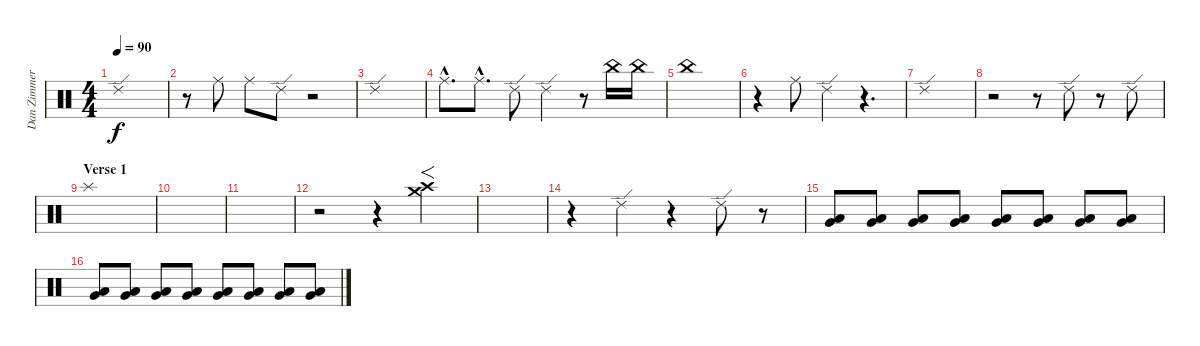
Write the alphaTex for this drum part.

\track ("Dan Zimmerman" "Dan Zimmer") {instrument percussion}
\staff {score}
\articulation defaults
\ts (4 4)
\tempo 90
\clef neutral
\ks c "Ride (edge) 2".1{dy f}
|
r.8 "Ride (middle)".8{volume 10} "Ride (middle)".8{volume 11} "Ride (edge) 2".8{volume 13} r.2 |
"Ride (edge) 2".1 |
"Ride (middle)"{hac}.8{d} "Ride (middle)"{hac}.8{d} "Ride (edge) 2".8 "Ride (edge) 2".4 r.8 "China (hit)".16{volume 8} "China (hit)".16 |
"China (hit)".1{volume 11} |
r.4 "Ride (middle)".8 "Ride (edge) 2".4{volume 13} r.4{d} |
"Ride (edge) 2".1 |
r.2 r.8 "Ride (edge) 2".8 r.8 "Ride (edge) 2".8 |
\section ("" "Verse 1")
"Splash (hit)".1 |
|
|
r.2 r.4 ("Crash high (hit)" "Crash medium (hit)").4{f volume 16} |
|
r.4 "Ride (edge) 2".4{volume 13} r.4 "Ride (edge) 2".8 r.8{volume 9} |
("Very Low Tom (hit)" "Low Tom (hit)").8{volume 11} ("Very Low Tom (hit)" "Low Tom (hit)").8 ("Very Low Tom (hit)" "Low Tom (hit)").8 ("Very Low Tom (hit)" "Low Tom (hit)").8 ("Very Low Tom (hit)" "Low Tom (hit)").8 ("Very Low Tom (hit)" "Low Tom (hit)").8 ("Very Low Tom (hit)" "Low Tom (hit)").8 ("Very Low Tom (hit)" "Low Tom (hit)").8 |
("Very Low Tom (hit)" "Low Tom (hit)").8{volume 13} ("Very Low Tom (hit)" "Low Tom (hit)").8 ("Very Low Tom (hit)" "Low Tom (hit)").8 ("Very Low Tom (hit)" "Low Tom (hit)").8 ("Very Low Tom (hit)" "Low Tom (hit)").8 ("Very Low Tom (hit)" "Low Tom (hit)").8 ("Very Low Tom (hit)" "Low Tom (hit)").8 ("Very Low Tom (hit)" "Low Tom (hit)").8
